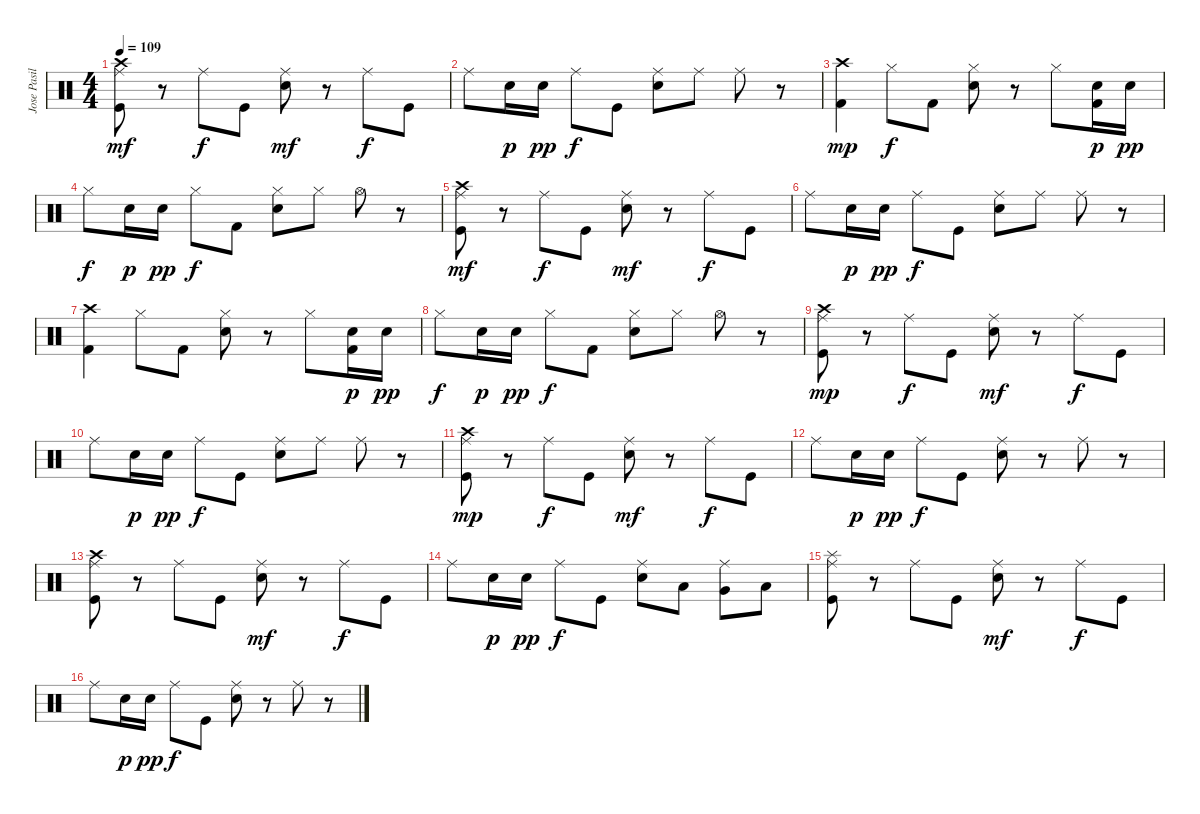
\track ("Jose Pasillas" "Jose Pasil") {instrument percussion}
\staff {score}
\articulation defaults
\ts (4 4)
\tempo 109
\clef neutral
\ks c
("Ride (middle)" "Crash high (hit)" "Kick (hit)").8{dy mf} r.8 "Ride (middle)".8{dy f} "Kick (hit)".8 ("Ride (middle)" "Electric Snare (hit)").8{dy mf} r.8 "Ride (middle)".8{dy f} "Kick (hit)".8 |
"Ride (middle)".8 "Electric Snare (hit)".16{dy p} "Electric Snare (hit)".16{dy pp} "Ride (middle)".8{dy f} "Kick (hit)".8 ("Ride (middle)" "Electric Snare (hit)").8 "Ride (middle)".8 "Ride (middle)".8 r.8 |
("Crash high (hit)" "Kick (hit) 2").4{dy mp} "Hi-Hat (closed)".8{dy f} "Kick (hit) 2".8 ("Hi-Hat (closed)" "Electric Snare (hit)").8 r.8 "Hi-Hat (closed)".8 ("Electric Snare (hit)" "Kick (hit) 2").16{dy p} "Electric Snare (hit)".16{dy pp} |
"Hi-Hat (closed)".8{dy f} "Electric Snare (hit)".16{dy p} "Electric Snare (hit)".16{dy pp} "Hi-Hat (closed)".8{dy f} "Kick (hit) 2".8 ("Hi-Hat (closed)" "Electric Snare (hit)").8 "Hi-Hat (closed)".8 "Hi-Hat (open)".8 r.8 |
("Ride (middle)" "Crash high (hit)" "Kick (hit)").8{dy mf} r.8 "Ride (middle)".8{dy f} "Kick (hit)".8 ("Ride (middle)" "Electric Snare (hit)").8{dy mf} r.8 "Ride (middle)".8{dy f} "Kick (hit)".8 |
"Ride (middle)".8 "Electric Snare (hit)".16{dy p} "Electric Snare (hit)".16{dy pp} "Ride (middle)".8{dy f} "Kick (hit)".8 ("Ride (middle)" "Electric Snare (hit)").8 "Ride (middle)".8 "Ride (middle)".8 r.8 |
("Crash high (hit)" "Kick (hit) 2").4 "Hi-Hat (closed)".8 "Kick (hit) 2".8 ("Hi-Hat (closed)" "Electric Snare (hit)").8 r.8 "Hi-Hat (closed)".8 ("Electric Snare (hit)" "Kick (hit) 2").16{dy p} "Electric Snare (hit)".16{dy pp} |
"Hi-Hat (closed)".8{dy f} "Electric Snare (hit)".16{dy p} "Electric Snare (hit)".16{dy pp} "Hi-Hat (closed)".8{dy f} "Kick (hit) 2".8 ("Hi-Hat (closed)" "Electric Snare (hit)").8 "Hi-Hat (closed)".8 "Hi-Hat (open)".8 r.8 |
("Ride (middle)" "Crash high (hit)" "Kick (hit)").8{dy mp} r.8 "Ride (middle)".8{dy f} "Kick (hit)".8 ("Ride (middle)" "Electric Snare (hit)").8{dy mf} r.8 "Ride (middle)".8{dy f} "Kick (hit)".8 |
"Ride (middle)".8 "Electric Snare (hit)".16{dy p} "Electric Snare (hit)".16{dy pp} "Ride (middle)".8{dy f} "Kick (hit)".8 ("Ride (middle)" "Electric Snare (hit)").8 "Ride (middle)".8 "Ride (middle)".8 r.8 |
("Ride (middle)" "Crash high (hit)" "Kick (hit)").8{dy mp} r.8 "Ride (middle)".8{dy f} "Kick (hit)".8 ("Ride (middle)" "Electric Snare (hit)").8{dy mf} r.8 "Ride (middle)".8{dy f} "Kick (hit)".8 |
"Ride (middle)".8 "Electric Snare (hit)".16{dy p} "Electric Snare (hit)".16{dy pp} "Ride (middle)".8{dy f} "Kick (hit)".8 ("Ride (middle)" "Electric Snare (hit)").8 r.8 "Ride (middle)".8 r.8 |
("Ride (middle)" "Crash high (hit)" "Kick (hit)").8 r.8 "Ride (middle)".8 "Kick (hit)".8 ("Ride (middle)" "Electric Snare (hit)").8{dy mf} r.8 "Ride (middle)".8{dy f} "Kick (hit)".8 |
"Ride (middle)".8 "Electric Snare (hit)".16{dy p} "Electric Snare (hit)".16{dy pp} "Ride (middle)".8{dy f} "Kick (hit)".8 ("Ride (middle)" "Electric Snare (hit)").8 "Low Tom (hit)".8 ("Ride (middle)" "Very Low Tom (hit)").8 "Low Floor Tom (hit)".8 |
("Ride (middle)" "Splash (hit)" "Kick (hit)").8 r.8 "Ride (middle)".8 "Kick (hit)".8 ("Ride (middle)" "Electric Snare (hit)").8{dy mf} r.8 "Ride (middle)".8{dy f} "Kick (hit)".8 |
"Ride (middle)".8 "Electric Snare (hit)".16{dy p} "Electric Snare (hit)".16{dy pp} "Ride (middle)".8{dy f} "Kick (hit)".8 ("Ride (middle)" "Electric Snare (hit)").8 r.8 "Ride (middle)".8 r.8
